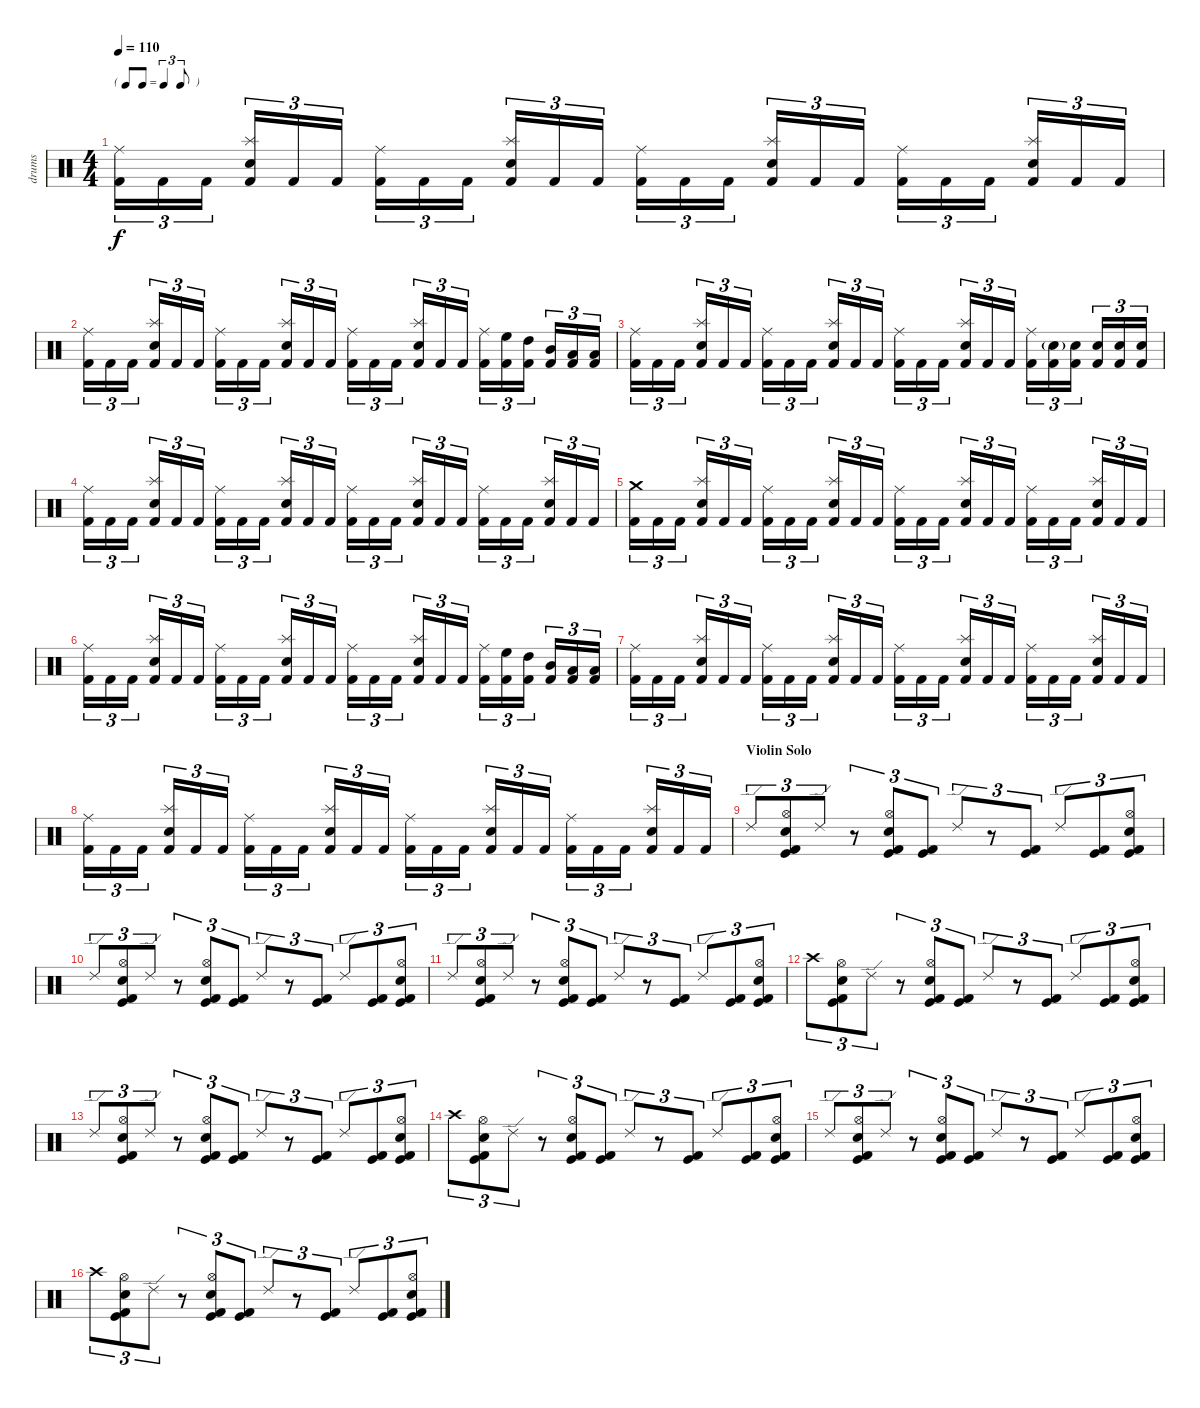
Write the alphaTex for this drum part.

\track ("drums" "drums") {instrument percussion}
\staff {score}
\articulation defaults
\ts (4 4)
\tf triplet8th
\tempo 110
\clef neutral
\ks c
("Ride (middle)" "Kick (hit) 2").16{tu (3 2) dy f} "Kick (hit) 2".16{tu (3 2)} "Kick (hit) 2".16{tu (3 2)} ("Splash (hit)" "Snare (hit) 2" "Kick (hit) 2").16{tu (3 2)} "Kick (hit) 2".16{tu (3 2)} "Kick (hit) 2".16{tu (3 2)} ("Ride (middle)" "Kick (hit) 2").16{tu (3 2)} "Kick (hit) 2".16{tu (3 2)} "Kick (hit) 2".16{tu (3 2)} ("Splash (hit)" "Snare (hit) 2" "Kick (hit) 2").16{tu (3 2)} "Kick (hit) 2".16{tu (3 2)} "Kick (hit) 2".16{tu (3 2)} ("Ride (middle)" "Kick (hit) 2").16{tu (3 2)} "Kick (hit) 2".16{tu (3 2)} "Kick (hit) 2".16{tu (3 2)} ("Splash (hit)" "Snare (hit) 2" "Kick (hit) 2").16{tu (3 2)} "Kick (hit) 2".16{tu (3 2)} "Kick (hit) 2".16{tu (3 2)} ("Ride (middle)" "Kick (hit) 2").16{tu (3 2)} "Kick (hit) 2".16{tu (3 2)} "Kick (hit) 2".16{tu (3 2)} ("Splash (hit)" "Snare (hit) 2" "Kick (hit) 2").16{tu (3 2)} "Kick (hit) 2".16{tu (3 2)} "Kick (hit) 2".16{tu (3 2)} |
("Ride (middle)" "Kick (hit) 2").16{tu (3 2)} "Kick (hit) 2".16{tu (3 2)} "Kick (hit) 2".16{tu (3 2)} ("Splash (hit)" "Snare (hit) 2" "Kick (hit) 2").16{tu (3 2)} "Kick (hit) 2".16{tu (3 2)} "Kick (hit) 2".16{tu (3 2)} ("Ride (middle)" "Kick (hit) 2").16{tu (3 2)} "Kick (hit) 2".16{tu (3 2)} "Kick (hit) 2".16{tu (3 2)} ("Splash (hit)" "Snare (hit) 2" "Kick (hit) 2").16{tu (3 2)} "Kick (hit) 2".16{tu (3 2)} "Kick (hit) 2".16{tu (3 2)} ("Ride (middle)" "Kick (hit) 2").16{tu (3 2)} "Kick (hit) 2".16{tu (3 2)} "Kick (hit) 2".16{tu (3 2)} ("Splash (hit)" "Snare (hit) 2" "Kick (hit) 2").16{tu (3 2)} "Kick (hit) 2".16{tu (3 2)} "Kick (hit) 2".16{tu (3 2)} ("Ride (middle)" "Kick (hit) 2").16{tu (3 2)} ("High Floor Tom (hit)" "Kick (hit) 2").16{tu (3 2)} ("High Tom (hit)" "Kick (hit) 2").16{tu (3 2)} ("Mid Tom (hit)" "Kick (hit) 2").16{tu (3 2)} ("Low Tom (hit)" "Kick (hit) 2").16{tu (3 2)} ("Low Floor Tom (hit)" "Kick (hit) 2").16{tu (3 2)} |
("Ride (middle)" "Kick (hit) 2").16{tu (3 2)} "Kick (hit) 2".16{tu (3 2)} "Kick (hit) 2".16{tu (3 2)} ("Splash (hit)" "Snare (hit) 2" "Kick (hit) 2").16{tu (3 2)} "Kick (hit) 2".16{tu (3 2)} "Kick (hit) 2".16{tu (3 2)} ("Ride (middle)" "Kick (hit) 2").16{tu (3 2)} "Kick (hit) 2".16{tu (3 2)} "Kick (hit) 2".16{tu (3 2)} ("Splash (hit)" "Snare (hit) 2" "Kick (hit) 2").16{tu (3 2)} "Kick (hit) 2".16{tu (3 2)} "Kick (hit) 2".16{tu (3 2)} ("Ride (middle)" "Kick (hit) 2").16{tu (3 2)} "Kick (hit) 2".16{tu (3 2)} "Kick (hit) 2".16{tu (3 2)} ("Splash (hit)" "Snare (hit) 2" "Kick (hit) 2").16{tu (3 2)} "Kick (hit) 2".16{tu (3 2)} "Kick (hit) 2".16{tu (3 2)} ("Ride (middle)" "Kick (hit) 2").16{tu (3 2)} ("Electric Snare (hit)"{g} "Kick (hit) 2").16{tu (3 2)} ("Snare (hit) 2" "Kick (hit) 2").16{tu (3 2)} ("Snare (hit) 2" "Kick (hit) 2").16{tu (3 2)} ("Snare (hit) 2" "Kick (hit) 2").16{tu (3 2)} ("Snare (hit) 2" "Kick (hit) 2").16{tu (3 2)} |
("Ride (middle)" "Kick (hit) 2").16{tu (3 2)} "Kick (hit) 2".16{tu (3 2)} "Kick (hit) 2".16{tu (3 2)} ("Splash (hit)" "Snare (hit) 2" "Kick (hit) 2").16{tu (3 2)} "Kick (hit) 2".16{tu (3 2)} "Kick (hit) 2".16{tu (3 2)} ("Ride (middle)" "Kick (hit) 2").16{tu (3 2)} "Kick (hit) 2".16{tu (3 2)} "Kick (hit) 2".16{tu (3 2)} ("Splash (hit)" "Snare (hit) 2" "Kick (hit) 2").16{tu (3 2)} "Kick (hit) 2".16{tu (3 2)} "Kick (hit) 2".16{tu (3 2)} ("Ride (middle)" "Kick (hit) 2").16{tu (3 2)} "Kick (hit) 2".16{tu (3 2)} "Kick (hit) 2".16{tu (3 2)} ("Splash (hit)" "Snare (hit) 2" "Kick (hit) 2").16{tu (3 2)} "Kick (hit) 2".16{tu (3 2)} "Kick (hit) 2".16{tu (3 2)} ("Ride (middle)" "Kick (hit) 2").16{tu (3 2)} "Kick (hit) 2".16{tu (3 2)} "Kick (hit) 2".16{tu (3 2)} ("Splash (hit)" "Snare (hit) 2" "Kick (hit) 2").16{tu (3 2)} "Kick (hit) 2".16{tu (3 2)} "Kick (hit) 2".16{tu (3 2)} |
("Crash medium (hit)" "Kick (hit) 2").16{tu (3 2)} "Kick (hit) 2".16{tu (3 2)} "Kick (hit) 2".16{tu (3 2)} ("Splash (hit)" "Snare (hit) 2" "Kick (hit) 2").16{tu (3 2)} "Kick (hit) 2".16{tu (3 2)} "Kick (hit) 2".16{tu (3 2)} ("Ride (middle)" "Kick (hit) 2").16{tu (3 2)} "Kick (hit) 2".16{tu (3 2)} "Kick (hit) 2".16{tu (3 2)} ("Splash (hit)" "Snare (hit) 2" "Kick (hit) 2").16{tu (3 2)} "Kick (hit) 2".16{tu (3 2)} "Kick (hit) 2".16{tu (3 2)} ("Ride (middle)" "Kick (hit) 2").16{tu (3 2)} "Kick (hit) 2".16{tu (3 2)} "Kick (hit) 2".16{tu (3 2)} ("Splash (hit)" "Snare (hit) 2" "Kick (hit) 2").16{tu (3 2)} "Kick (hit) 2".16{tu (3 2)} "Kick (hit) 2".16{tu (3 2)} ("Ride (middle)" "Kick (hit) 2").16{tu (3 2)} "Kick (hit) 2".16{tu (3 2)} "Kick (hit) 2".16{tu (3 2)} ("Splash (hit)" "Snare (hit) 2" "Kick (hit) 2").16{tu (3 2)} "Kick (hit) 2".16{tu (3 2)} "Kick (hit) 2".16{tu (3 2)} |
("Ride (middle)" "Kick (hit) 2").16{tu (3 2)} "Kick (hit) 2".16{tu (3 2)} "Kick (hit) 2".16{tu (3 2)} ("Splash (hit)" "Snare (hit) 2" "Kick (hit) 2").16{tu (3 2)} "Kick (hit) 2".16{tu (3 2)} "Kick (hit) 2".16{tu (3 2)} ("Ride (middle)" "Kick (hit) 2").16{tu (3 2)} "Kick (hit) 2".16{tu (3 2)} "Kick (hit) 2".16{tu (3 2)} ("Splash (hit)" "Snare (hit) 2" "Kick (hit) 2").16{tu (3 2)} "Kick (hit) 2".16{tu (3 2)} "Kick (hit) 2".16{tu (3 2)} ("Ride (middle)" "Kick (hit) 2").16{tu (3 2)} "Kick (hit) 2".16{tu (3 2)} "Kick (hit) 2".16{tu (3 2)} ("Splash (hit)" "Snare (hit) 2" "Kick (hit) 2").16{tu (3 2)} "Kick (hit) 2".16{tu (3 2)} "Kick (hit) 2".16{tu (3 2)} ("Ride (middle)" "Kick (hit) 2").16{tu (3 2)} ("High Floor Tom (hit)" "Kick (hit) 2").16{tu (3 2)} ("High Tom (hit)" "Kick (hit) 2").16{tu (3 2)} ("Mid Tom (hit)" "Kick (hit) 2").16{tu (3 2)} ("Low Tom (hit)" "Kick (hit) 2").16{tu (3 2)} ("Low Floor Tom (hit)" "Kick (hit) 2").16{tu (3 2)} |
("Ride (middle)" "Kick (hit) 2").16{tu (3 2)} "Kick (hit) 2".16{tu (3 2)} "Kick (hit) 2".16{tu (3 2)} ("Splash (hit)" "Snare (hit) 2" "Kick (hit) 2").16{tu (3 2)} "Kick (hit) 2".16{tu (3 2)} "Kick (hit) 2".16{tu (3 2)} ("Ride (middle)" "Kick (hit) 2").16{tu (3 2)} "Kick (hit) 2".16{tu (3 2)} "Kick (hit) 2".16{tu (3 2)} ("Splash (hit)" "Snare (hit) 2" "Kick (hit) 2").16{tu (3 2)} "Kick (hit) 2".16{tu (3 2)} "Kick (hit) 2".16{tu (3 2)} ("Ride (middle)" "Kick (hit) 2").16{tu (3 2)} "Kick (hit) 2".16{tu (3 2)} "Kick (hit) 2".16{tu (3 2)} ("Splash (hit)" "Snare (hit) 2" "Kick (hit) 2").16{tu (3 2)} "Kick (hit) 2".16{tu (3 2)} "Kick (hit) 2".16{tu (3 2)} ("Ride (middle)" "Kick (hit) 2").16{tu (3 2)} "Kick (hit) 2".16{tu (3 2)} "Kick (hit) 2".16{tu (3 2)} ("Splash (hit)" "Snare (hit) 2" "Kick (hit) 2").16{tu (3 2)} "Kick (hit) 2".16{tu (3 2)} "Kick (hit) 2".16{tu (3 2)} |
("Ride (middle)" "Kick (hit) 2").16{tu (3 2)} "Kick (hit) 2".16{tu (3 2)} "Kick (hit) 2".16{tu (3 2)} ("Splash (hit)" "Snare (hit) 2" "Kick (hit) 2").16{tu (3 2)} "Kick (hit) 2".16{tu (3 2)} "Kick (hit) 2".16{tu (3 2)} ("Ride (middle)" "Kick (hit) 2").16{tu (3 2)} "Kick (hit) 2".16{tu (3 2)} "Kick (hit) 2".16{tu (3 2)} ("Splash (hit)" "Snare (hit) 2" "Kick (hit) 2").16{tu (3 2)} "Kick (hit) 2".16{tu (3 2)} "Kick (hit) 2".16{tu (3 2)} ("Ride (middle)" "Kick (hit) 2").16{tu (3 2)} "Kick (hit) 2".16{tu (3 2)} "Kick (hit) 2".16{tu (3 2)} ("Splash (hit)" "Snare (hit) 2" "Kick (hit) 2").16{tu (3 2)} "Kick (hit) 2".16{tu (3 2)} "Kick (hit) 2".16{tu (3 2)} ("Ride (middle)" "Kick (hit) 2").16{tu (3 2)} "Kick (hit) 2".16{tu (3 2)} "Kick (hit) 2".16{tu (3 2)} ("Splash (hit)" "Snare (hit) 2" "Kick (hit) 2").16{tu (3 2)} "Kick (hit) 2".16{tu (3 2)} "Kick (hit) 2".16{tu (3 2)} |
\section ("" "Violin Solo")
"Ride (edge) 2".8{tu (3 2)} ("Hi-Hat (open)" "Electric Snare (hit)" "Kick (hit) 2" "Kick (hit)").8{tu (3 2)} "Ride (edge) 2".8{tu (3 2)} r.8{tu (3 2)} ("Hi-Hat (open)" "Electric Snare (hit)" "Kick (hit) 2" "Kick (hit)").8{tu (3 2)} ("Kick (hit) 2" "Kick (hit)").8{tu (3 2)} "Ride (edge) 2".8{tu (3 2)} r.8{tu (3 2)} ("Kick (hit) 2" "Kick (hit)").8{tu (3 2)} "Ride (edge) 2".8{tu (3 2)} ("Kick (hit) 2" "Kick (hit)").8{tu (3 2)} ("Hi-Hat (open)" "Electric Snare (hit)" "Kick (hit) 2" "Kick (hit)").8{tu (3 2)} |
"Ride (edge) 2".8{tu (3 2)} ("Hi-Hat (open)" "Electric Snare (hit)" "Kick (hit) 2" "Kick (hit)").8{tu (3 2)} "Ride (edge) 2".8{tu (3 2)} r.8{tu (3 2)} ("Hi-Hat (open)" "Electric Snare (hit)" "Kick (hit) 2" "Kick (hit)").8{tu (3 2)} ("Kick (hit) 2" "Kick (hit)").8{tu (3 2)} "Ride (edge) 2".8{tu (3 2)} r.8{tu (3 2)} ("Kick (hit) 2" "Kick (hit)").8{tu (3 2)} "Ride (edge) 2".8{tu (3 2)} ("Kick (hit) 2" "Kick (hit)").8{tu (3 2)} ("Hi-Hat (open)" "Electric Snare (hit)" "Kick (hit) 2" "Kick (hit)").8{tu (3 2)} |
"Ride (edge) 2".8{tu (3 2)} ("Hi-Hat (open)" "Electric Snare (hit)" "Kick (hit) 2" "Kick (hit)").8{tu (3 2)} "Ride (edge) 2".8{tu (3 2)} r.8{tu (3 2)} ("Hi-Hat (open)" "Electric Snare (hit)" "Kick (hit) 2" "Kick (hit)").8{tu (3 2)} ("Kick (hit) 2" "Kick (hit)").8{tu (3 2)} "Ride (edge) 2".8{tu (3 2)} r.8{tu (3 2)} ("Kick (hit) 2" "Kick (hit)").8{tu (3 2)} "Ride (edge) 2".8{tu (3 2)} ("Kick (hit) 2" "Kick (hit)").8{tu (3 2)} ("Hi-Hat (open)" "Electric Snare (hit)" "Kick (hit) 2" "Kick (hit)").8{tu (3 2)} |
"Crash high (hit)".8{tu (3 2)} ("Hi-Hat (open)" "Electric Snare (hit)" "Kick (hit) 2" "Kick (hit)").8{tu (3 2)} "Ride (edge) 2".8{tu (3 2)} r.8{tu (3 2)} ("Hi-Hat (open)" "Electric Snare (hit)" "Kick (hit) 2" "Kick (hit)").8{tu (3 2)} ("Kick (hit) 2" "Kick (hit)").8{tu (3 2)} "Ride (edge) 2".8{tu (3 2)} r.8{tu (3 2)} ("Kick (hit) 2" "Kick (hit)").8{tu (3 2)} "Ride (edge) 2".8{tu (3 2)} ("Kick (hit) 2" "Kick (hit)").8{tu (3 2)} ("Hi-Hat (open)" "Electric Snare (hit)" "Kick (hit) 2" "Kick (hit)").8{tu (3 2)} |
"Ride (edge) 2".8{tu (3 2)} ("Hi-Hat (open)" "Electric Snare (hit)" "Kick (hit) 2" "Kick (hit)").8{tu (3 2)} "Ride (edge) 2".8{tu (3 2)} r.8{tu (3 2)} ("Hi-Hat (open)" "Electric Snare (hit)" "Kick (hit) 2" "Kick (hit)").8{tu (3 2)} ("Kick (hit) 2" "Kick (hit)").8{tu (3 2)} "Ride (edge) 2".8{tu (3 2)} r.8{tu (3 2)} ("Kick (hit) 2" "Kick (hit)").8{tu (3 2)} "Ride (edge) 2".8{tu (3 2)} ("Kick (hit) 2" "Kick (hit)").8{tu (3 2)} ("Hi-Hat (open)" "Electric Snare (hit)" "Kick (hit) 2" "Kick (hit)").8{tu (3 2)} |
"Crash high (hit)".8{tu (3 2)} ("Hi-Hat (open)" "Electric Snare (hit)" "Kick (hit) 2" "Kick (hit)").8{tu (3 2)} "Ride (edge) 2".8{tu (3 2)} r.8{tu (3 2)} ("Hi-Hat (open)" "Electric Snare (hit)" "Kick (hit) 2" "Kick (hit)").8{tu (3 2)} ("Kick (hit) 2" "Kick (hit)").8{tu (3 2)} "Ride (edge) 2".8{tu (3 2)} r.8{tu (3 2)} ("Kick (hit) 2" "Kick (hit)").8{tu (3 2)} "Ride (edge) 2".8{tu (3 2)} ("Kick (hit) 2" "Kick (hit)").8{tu (3 2)} ("Hi-Hat (open)" "Electric Snare (hit)" "Kick (hit) 2" "Kick (hit)").8{tu (3 2)} |
"Ride (edge) 2".8{tu (3 2)} ("Hi-Hat (open)" "Electric Snare (hit)" "Kick (hit) 2" "Kick (hit)").8{tu (3 2)} "Ride (edge) 2".8{tu (3 2)} r.8{tu (3 2)} ("Hi-Hat (open)" "Electric Snare (hit)" "Kick (hit) 2" "Kick (hit)").8{tu (3 2)} ("Kick (hit) 2" "Kick (hit)").8{tu (3 2)} "Ride (edge) 2".8{tu (3 2)} r.8{tu (3 2)} ("Kick (hit) 2" "Kick (hit)").8{tu (3 2)} "Ride (edge) 2".8{tu (3 2)} ("Kick (hit) 2" "Kick (hit)").8{tu (3 2)} ("Hi-Hat (open)" "Electric Snare (hit)" "Kick (hit) 2" "Kick (hit)").8{tu (3 2)} |
"Crash high (hit)".8{tu (3 2)} ("Hi-Hat (open)" "Electric Snare (hit)" "Kick (hit) 2" "Kick (hit)").8{tu (3 2)} "Ride (edge) 2".8{tu (3 2)} r.8{tu (3 2)} ("Hi-Hat (open)" "Electric Snare (hit)" "Kick (hit) 2" "Kick (hit)").8{tu (3 2)} ("Kick (hit) 2" "Kick (hit)").8{tu (3 2)} "Ride (edge) 2".8{tu (3 2)} r.8{tu (3 2)} ("Kick (hit) 2" "Kick (hit)").8{tu (3 2)} "Ride (edge) 2".8{tu (3 2)} ("Kick (hit) 2" "Kick (hit)").8{tu (3 2)} ("Hi-Hat (open)" "Electric Snare (hit)" "Kick (hit) 2" "Kick (hit)").8{tu (3 2)}
